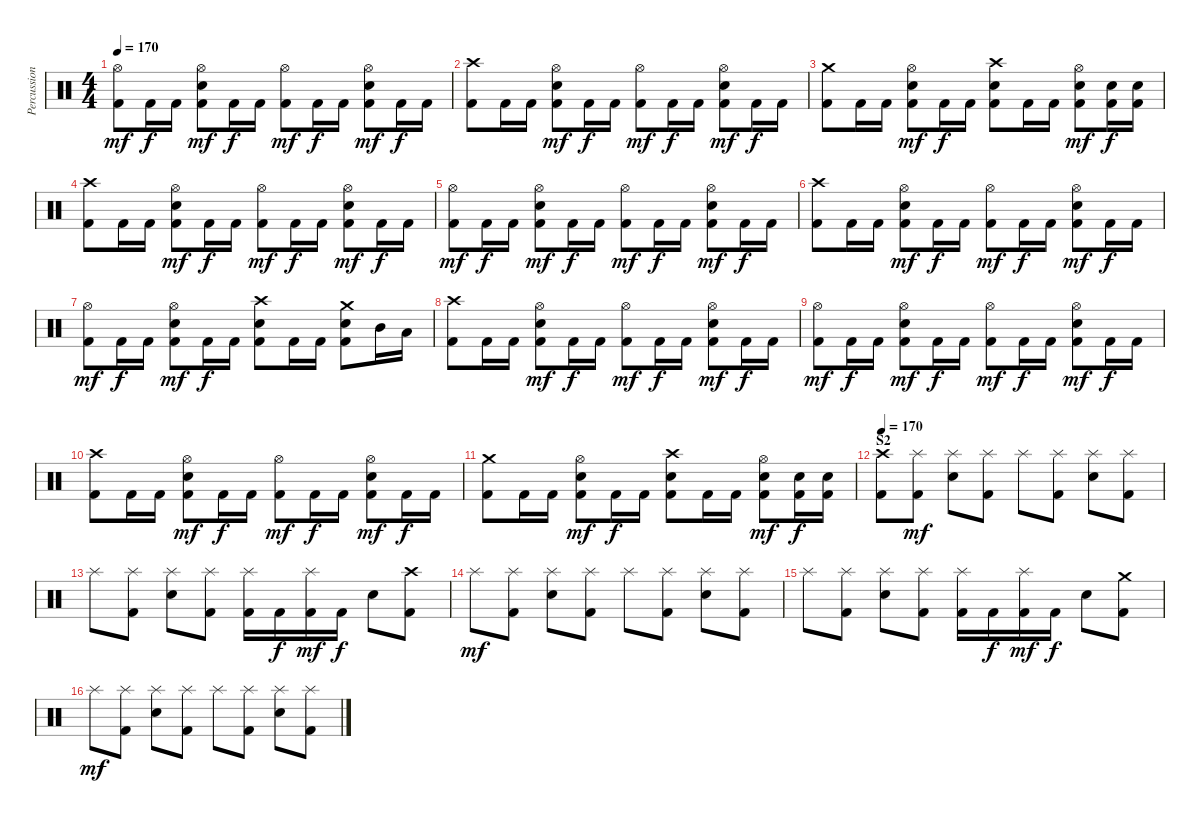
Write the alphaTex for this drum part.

\track ("Percussion" "Percussion") {instrument percussion}
\staff {score}
\articulation defaults
\ts (4 4)
\tempo 170
\clef neutral
\ks c
("Hi-Hat (open)" "Kick (hit) 2").8{dy mf} "Kick (hit) 2".16{dy f} "Kick (hit) 2".16 ("Hi-Hat (open)" "Electric Snare (hit)" "Kick (hit) 2").8{dy mf} "Kick (hit) 2".16{dy f} "Kick (hit) 2".16 ("Hi-Hat (open)" "Kick (hit) 2").8{dy mf} "Kick (hit) 2".16{dy f} "Kick (hit) 2".16 ("Hi-Hat (open)" "Electric Snare (hit)" "Kick (hit) 2").8{dy mf} "Kick (hit) 2".16{dy f} "Kick (hit) 2".16 |
("Crash high (hit)" "Kick (hit) 2").8 "Kick (hit) 2".16 "Kick (hit) 2".16 ("Hi-Hat (open)" "Electric Snare (hit)" "Kick (hit) 2").8{dy mf} "Kick (hit) 2".16{dy f} "Kick (hit) 2".16 ("Hi-Hat (open)" "Kick (hit) 2").8{dy mf} "Kick (hit) 2".16{dy f} "Kick (hit) 2".16 ("Hi-Hat (open)" "Electric Snare (hit)" "Kick (hit) 2").8{dy mf} "Kick (hit) 2".16{dy f} "Kick (hit) 2".16 |
("Crash medium (hit)" "Kick (hit) 2").8 "Kick (hit) 2".16 "Kick (hit) 2".16 ("Hi-Hat (open)" "Electric Snare (hit)" "Kick (hit) 2").8{dy mf} "Kick (hit) 2".16{dy f} "Kick (hit) 2".16 ("Crash high (hit)" "Electric Snare (hit)" "Kick (hit) 2").8 "Kick (hit) 2".16 "Kick (hit) 2".16 ("Hi-Hat (open)" "Electric Snare (hit)" "Kick (hit) 2").8{dy mf} ("Electric Snare (hit)" "Kick (hit) 2").16{dy f} ("Electric Snare (hit)" "Kick (hit) 2").16 |
\section ("" "")
("Crash high (hit)" "Kick (hit) 2").8 "Kick (hit) 2".16 "Kick (hit) 2".16 ("Hi-Hat (open)" "Electric Snare (hit)" "Kick (hit) 2").8{dy mf} "Kick (hit) 2".16{dy f} "Kick (hit) 2".16 ("Hi-Hat (open)" "Kick (hit) 2").8{dy mf} "Kick (hit) 2".16{dy f} "Kick (hit) 2".16 ("Hi-Hat (open)" "Electric Snare (hit)" "Kick (hit) 2").8{dy mf} "Kick (hit) 2".16{dy f} "Kick (hit) 2".16 |
("Hi-Hat (open)" "Kick (hit) 2").8{dy mf} "Kick (hit) 2".16{dy f} "Kick (hit) 2".16 ("Hi-Hat (open)" "Electric Snare (hit)" "Kick (hit) 2").8{dy mf} "Kick (hit) 2".16{dy f} "Kick (hit) 2".16 ("Hi-Hat (open)" "Kick (hit) 2").8{dy mf} "Kick (hit) 2".16{dy f} "Kick (hit) 2".16 ("Hi-Hat (open)" "Electric Snare (hit)" "Kick (hit) 2").8{dy mf} "Kick (hit) 2".16{dy f} "Kick (hit) 2".16 |
("Crash high (hit)" "Kick (hit) 2").8 "Kick (hit) 2".16 "Kick (hit) 2".16 ("Hi-Hat (open)" "Electric Snare (hit)" "Kick (hit) 2").8{dy mf} "Kick (hit) 2".16{dy f} "Kick (hit) 2".16 ("Hi-Hat (open)" "Kick (hit) 2").8{dy mf} "Kick (hit) 2".16{dy f} "Kick (hit) 2".16 ("Hi-Hat (open)" "Electric Snare (hit)" "Kick (hit) 2").8{dy mf} "Kick (hit) 2".16{dy f} "Kick (hit) 2".16 |
("Hi-Hat (open)" "Kick (hit) 2").8{dy mf} "Kick (hit) 2".16{dy f} "Kick (hit) 2".16 ("Hi-Hat (open)" "Electric Snare (hit)" "Kick (hit) 2").8{dy mf} "Kick (hit) 2".16{dy f} "Kick (hit) 2".16 ("Crash high (hit)" "Electric Snare (hit)" "Kick (hit) 2").8 "Kick (hit) 2".16 "Kick (hit) 2".16 ("Crash medium (hit)" "Electric Snare (hit)" "Kick (hit) 2").8 "Mid Tom (hit)".16 "Low Tom (hit)".16 |
("Crash high (hit)" "Kick (hit) 2").8 "Kick (hit) 2".16 "Kick (hit) 2".16 ("Hi-Hat (open)" "Electric Snare (hit)" "Kick (hit) 2").8{dy mf} "Kick (hit) 2".16{dy f} "Kick (hit) 2".16 ("Hi-Hat (open)" "Kick (hit) 2").8{dy mf} "Kick (hit) 2".16{dy f} "Kick (hit) 2".16 ("Hi-Hat (open)" "Electric Snare (hit)" "Kick (hit) 2").8{dy mf} "Kick (hit) 2".16{dy f} "Kick (hit) 2".16 |
("Hi-Hat (open)" "Kick (hit) 2").8{dy mf} "Kick (hit) 2".16{dy f} "Kick (hit) 2".16 ("Hi-Hat (open)" "Electric Snare (hit)" "Kick (hit) 2").8{dy mf} "Kick (hit) 2".16{dy f} "Kick (hit) 2".16 ("Hi-Hat (open)" "Kick (hit) 2").8{dy mf} "Kick (hit) 2".16{dy f} "Kick (hit) 2".16 ("Hi-Hat (open)" "Electric Snare (hit)" "Kick (hit) 2").8{dy mf} "Kick (hit) 2".16{dy f} "Kick (hit) 2".16 |
("Crash high (hit)" "Kick (hit) 2").8 "Kick (hit) 2".16 "Kick (hit) 2".16 ("Hi-Hat (open)" "Electric Snare (hit)" "Kick (hit) 2").8{dy mf} "Kick (hit) 2".16{dy f} "Kick (hit) 2".16 ("Hi-Hat (open)" "Kick (hit) 2").8{dy mf} "Kick (hit) 2".16{dy f} "Kick (hit) 2".16 ("Hi-Hat (open)" "Electric Snare (hit)" "Kick (hit) 2").8{dy mf} "Kick (hit) 2".16{dy f} "Kick (hit) 2".16 |
("Crash medium (hit)" "Kick (hit) 2").8 "Kick (hit) 2".16 "Kick (hit) 2".16 ("Hi-Hat (open)" "Electric Snare (hit)" "Kick (hit) 2").8{dy mf} "Kick (hit) 2".16{dy f} "Kick (hit) 2".16 ("Crash high (hit)" "Electric Snare (hit)" "Kick (hit) 2").8 "Kick (hit) 2".16 "Kick (hit) 2".16 ("Hi-Hat (open)" "Electric Snare (hit)" "Kick (hit) 2").8{dy mf} ("Electric Snare (hit)" "Kick (hit) 2").16{dy f} ("Electric Snare (hit)" "Kick (hit) 2").16 |
\section ("" "S2")
\tempo 170
("Crash high (hit)" "Kick (hit) 2").8 ("Splash (hit)" "Kick (hit) 2").8{dy mf} ("Splash (hit)" "Electric Snare (hit)").8 ("Splash (hit)" "Kick (hit) 2").8 "Splash (hit)".8 ("Splash (hit)" "Kick (hit) 2").8 ("Splash (hit)" "Electric Snare (hit)").8 ("Splash (hit)" "Kick (hit) 2").8 |
"Splash (hit)".8 ("Splash (hit)" "Kick (hit) 2").8 ("Splash (hit)" "Electric Snare (hit)").8 ("Splash (hit)" "Kick (hit) 2").8 ("Splash (hit)" "Kick (hit) 2").16 "Kick (hit) 2".16{dy f} ("Splash (hit)" "Kick (hit) 2").16{dy mf} "Kick (hit) 2".16{dy f} "Electric Snare (hit)".8 ("Crash high (hit)" "Kick (hit) 2").8 |
"Splash (hit)".8{dy mf} ("Splash (hit)" "Kick (hit) 2").8 ("Splash (hit)" "Electric Snare (hit)").8 ("Splash (hit)" "Kick (hit) 2").8 "Splash (hit)".8 ("Splash (hit)" "Kick (hit) 2").8 ("Splash (hit)" "Electric Snare (hit)").8 ("Splash (hit)" "Kick (hit) 2").8 |
"Splash (hit)".8 ("Splash (hit)" "Kick (hit) 2").8 ("Splash (hit)" "Electric Snare (hit)").8 ("Splash (hit)" "Kick (hit) 2").8 ("Splash (hit)" "Kick (hit) 2").16 "Kick (hit) 2".16{dy f} ("Splash (hit)" "Kick (hit) 2").16{dy mf} "Kick (hit) 2".16{dy f} "Electric Snare (hit)".8 ("Crash medium (hit)" "Kick (hit) 2").8 |
"Splash (hit)".8{dy mf} ("Splash (hit)" "Kick (hit) 2").8 ("Splash (hit)" "Electric Snare (hit)").8 ("Splash (hit)" "Kick (hit) 2").8 "Splash (hit)".8 ("Splash (hit)" "Kick (hit) 2").8 ("Splash (hit)" "Electric Snare (hit)").8 ("Splash (hit)" "Kick (hit) 2").8
